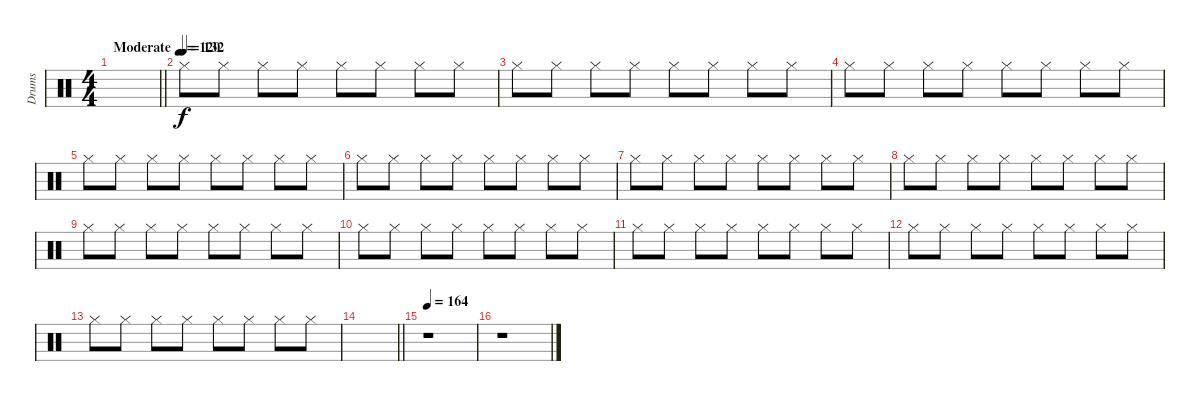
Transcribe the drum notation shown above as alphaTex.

\track ("Drums" "Drums") {instrument percussion}
\staff {score}
\articulation defaults
\ts (4 4)
\tempo (120 "Moderate")
\clef neutral
\barLineRight lightlight
\ks c
|
\tempo (132)
"Hi-Hat (closed)".8 "Hi-Hat (closed)".8 "Hi-Hat (closed)".8 "Hi-Hat (closed)".8 "Hi-Hat (closed)".8 "Hi-Hat (closed)".8 "Hi-Hat (closed)".8 "Hi-Hat (closed)".8 |
"Hi-Hat (closed)".8 "Hi-Hat (closed)".8 "Hi-Hat (closed)".8 "Hi-Hat (closed)".8 "Hi-Hat (closed)".8 "Hi-Hat (closed)".8 "Hi-Hat (closed)".8 "Hi-Hat (closed)".8 |
"Hi-Hat (closed)".8 "Hi-Hat (closed)".8 "Hi-Hat (closed)".8 "Hi-Hat (closed)".8 "Hi-Hat (closed)".8 "Hi-Hat (closed)".8 "Hi-Hat (closed)".8 "Hi-Hat (closed)".8 |
"Hi-Hat (closed)".8 "Hi-Hat (closed)".8 "Hi-Hat (closed)".8 "Hi-Hat (closed)".8 "Hi-Hat (closed)".8 "Hi-Hat (closed)".8 "Hi-Hat (closed)".8 "Hi-Hat (closed)".8 |
"Hi-Hat (closed)".8 "Hi-Hat (closed)".8 "Hi-Hat (closed)".8 "Hi-Hat (closed)".8 "Hi-Hat (closed)".8 "Hi-Hat (closed)".8 "Hi-Hat (closed)".8 "Hi-Hat (closed)".8 |
"Hi-Hat (closed)".8 "Hi-Hat (closed)".8 "Hi-Hat (closed)".8 "Hi-Hat (closed)".8 "Hi-Hat (closed)".8 "Hi-Hat (closed)".8 "Hi-Hat (closed)".8 "Hi-Hat (closed)".8 |
"Hi-Hat (closed)".8 "Hi-Hat (closed)".8 "Hi-Hat (closed)".8 "Hi-Hat (closed)".8 "Hi-Hat (closed)".8 "Hi-Hat (closed)".8 "Hi-Hat (closed)".8 "Hi-Hat (closed)".8 |
"Hi-Hat (closed)".8 "Hi-Hat (closed)".8 "Hi-Hat (closed)".8 "Hi-Hat (closed)".8 "Hi-Hat (closed)".8 "Hi-Hat (closed)".8 "Hi-Hat (closed)".8 "Hi-Hat (closed)".8 |
"Hi-Hat (closed)".8 "Hi-Hat (closed)".8 "Hi-Hat (closed)".8 "Hi-Hat (closed)".8 "Hi-Hat (closed)".8 "Hi-Hat (closed)".8 "Hi-Hat (closed)".8 "Hi-Hat (closed)".8 |
"Hi-Hat (closed)".8 "Hi-Hat (closed)".8 "Hi-Hat (closed)".8 "Hi-Hat (closed)".8 "Hi-Hat (closed)".8 "Hi-Hat (closed)".8 "Hi-Hat (closed)".8 "Hi-Hat (closed)".8 |
"Hi-Hat (closed)".8 "Hi-Hat (closed)".8 "Hi-Hat (closed)".8 "Hi-Hat (closed)".8 "Hi-Hat (closed)".8 "Hi-Hat (closed)".8 "Hi-Hat (closed)".8 "Hi-Hat (closed)".8 |
"Hi-Hat (closed)".8 "Hi-Hat (closed)".8 "Hi-Hat (closed)".8 "Hi-Hat (closed)".8 "Hi-Hat (closed)".8 "Hi-Hat (closed)".8 "Hi-Hat (closed)".8 "Hi-Hat (closed)".8 |
\barLineRight lightlight
|
\tempo 164
r.1 |
r.1
